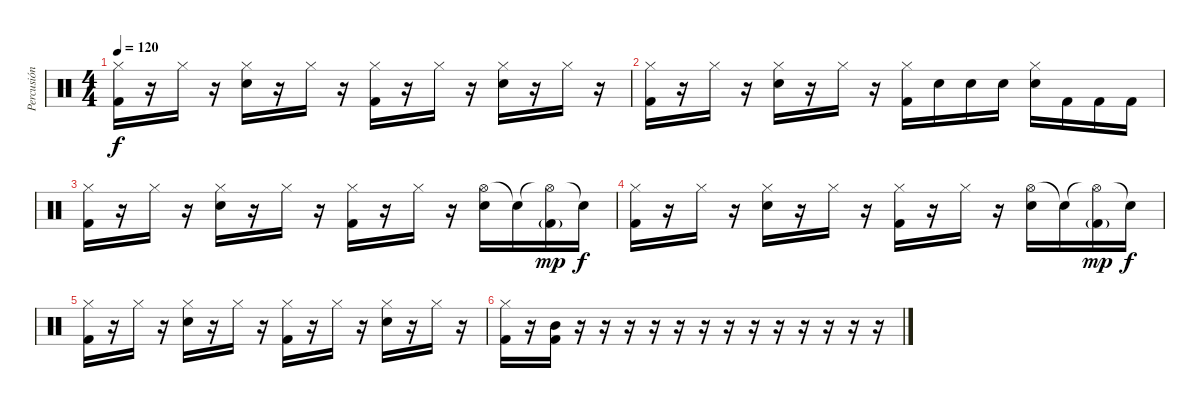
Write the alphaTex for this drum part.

\track ("Percusión" "Percusión") {instrument percussion}
\staff {score}
\articulation defaults
\ts (4 4)
\tempo 120
\clef neutral
\ks c
("Hi-Hat (closed)" "Kick (hit) 2").16{dy f} r.16 "Hi-Hat (closed)".16 r.16 ("Hi-Hat (closed)" "Snare (hit) 2").16 r.16 "Hi-Hat (closed)".16 r.16 ("Hi-Hat (closed)" "Kick (hit) 2").16 r.16 "Hi-Hat (closed)".16 r.16 ("Hi-Hat (closed)" "Snare (hit) 2").16 r.16 "Hi-Hat (closed)".16 r.16 |
("Hi-Hat (closed)" "Kick (hit) 2").16 r.16 "Hi-Hat (closed)".16 r.16 ("Hi-Hat (closed)" "Snare (hit) 2").16 r.16 "Hi-Hat (closed)".16 r.16 ("Hi-Hat (closed)" "Kick (hit) 2").16 "Snare (hit) 2".16 "Snare (hit) 2".16 "Snare (hit) 2".16 ("Hi-Hat (closed)" "Snare (hit) 2").16 "Kick (hit) 2".16 "Kick (hit) 2".16 "Kick (hit) 2".16 |
("Hi-Hat (closed)" "Kick (hit) 2").16 r.16 "Hi-Hat (closed)".16 r.16 ("Hi-Hat (closed)" "Snare (hit) 2").16 r.16 "Hi-Hat (closed)".16 r.16 ("Hi-Hat (closed)" "Kick (hit) 2").16 r.16 "Hi-Hat (closed)".16 r.16 ("Hi-Hat (open)" "Snare (hit) 2").16 "Snare (hit)"{t}.16 ("Hi-Hat (open)"{t} "Kick (hit) 2"{g}).16{dy mp} "Snare (hit)"{t}.16{dy f} |
("Hi-Hat (closed)" "Kick (hit) 2").16 r.16 "Hi-Hat (closed)".16 r.16 ("Hi-Hat (closed)" "Snare (hit) 2").16 r.16 "Hi-Hat (closed)".16 r.16 ("Hi-Hat (closed)" "Kick (hit) 2").16 r.16 "Hi-Hat (closed)".16 r.16 ("Hi-Hat (open)" "Snare (hit) 2").16 "Snare (hit)"{t}.16 ("Hi-Hat (open)"{t} "Kick (hit) 2"{g}).16{dy mp} "Snare (hit)"{t}.16{dy f} |
("Hi-Hat (closed)" "Kick (hit) 2").16 r.16 "Hi-Hat (closed)".16 r.16 ("Hi-Hat (closed)" "Snare (hit) 2").16 r.16 "Hi-Hat (closed)".16 r.16 ("Hi-Hat (closed)" "Kick (hit) 2").16 r.16 "Hi-Hat (closed)".16 r.16 ("Hi-Hat (closed)" "Snare (hit) 2").16 r.16 "Hi-Hat (closed)".16 r.16 |
("Hi-Hat (closed)" "Kick (hit) 2").16 r.16 ("Mid Tom (hit)" "Kick (hit) 2").16 r.16 r.16 r.16 r.16 r.16 r.16 r.16 r.16 r.16 r.16 r.16 r.16 r.16
